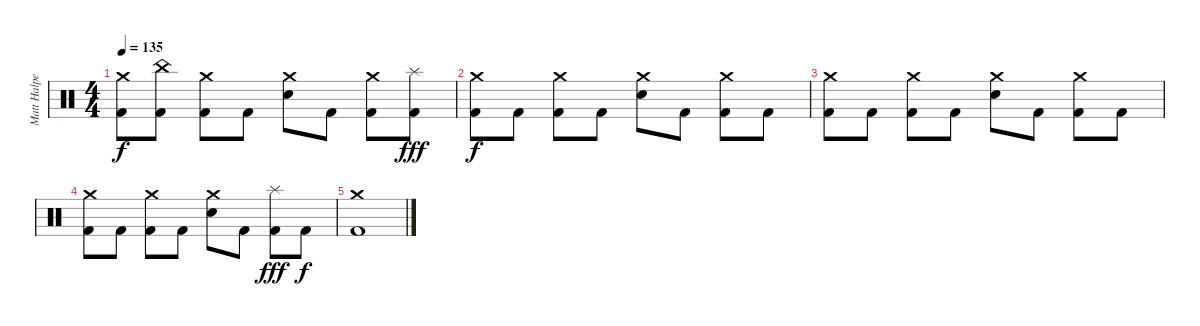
\track ("Matt Halpern - Drums" "Matt Halpe") {instrument percussion}
\staff {score}
\articulation defaults
\ts (4 4)
\tempo 135
\clef neutral
\ks c
("Crash medium (hit)" "Kick (hit) 2").8{dy f} ("China (hit)" "Kick (hit) 2").8 ("Crash medium (hit)" "Kick (hit) 2").8 "Kick (hit) 2".8 ("Crash medium (hit)" "Electric Snare (hit)").8 "Kick (hit) 2".8 ("Crash medium (hit)" "Kick (hit) 2").8 ("Splash (hit)" "Kick (hit) 2").8{dy fff} |
("Crash medium (hit)" "Kick (hit) 2").8{dy f} "Kick (hit) 2".8 ("Crash medium (hit)" "Kick (hit) 2").8 "Kick (hit) 2".8 ("Crash medium (hit)" "Electric Snare (hit)").8 "Kick (hit) 2".8 ("Crash medium (hit)" "Kick (hit) 2").8 "Kick (hit) 2".8 |
("Crash medium (hit)" "Kick (hit) 2").8 "Kick (hit) 2".8 ("Crash medium (hit)" "Kick (hit) 2").8 "Kick (hit) 2".8 ("Crash medium (hit)" "Electric Snare (hit)").8 "Kick (hit) 2".8 ("Crash medium (hit)" "Kick (hit) 2").8 "Kick (hit) 2".8 |
("Crash medium (hit)" "Kick (hit) 2").8 "Kick (hit) 2".8 ("Crash medium (hit)" "Kick (hit) 2").8 "Kick (hit) 2".8 ("Crash medium (hit)" "Electric Snare (hit)").8 "Kick (hit) 2".8 ("Splash (hit)" "Kick (hit) 2").8{dy fff} "Kick (hit) 2".8{dy f} |
("Crash medium (hit)" "Kick (hit) 2").1
